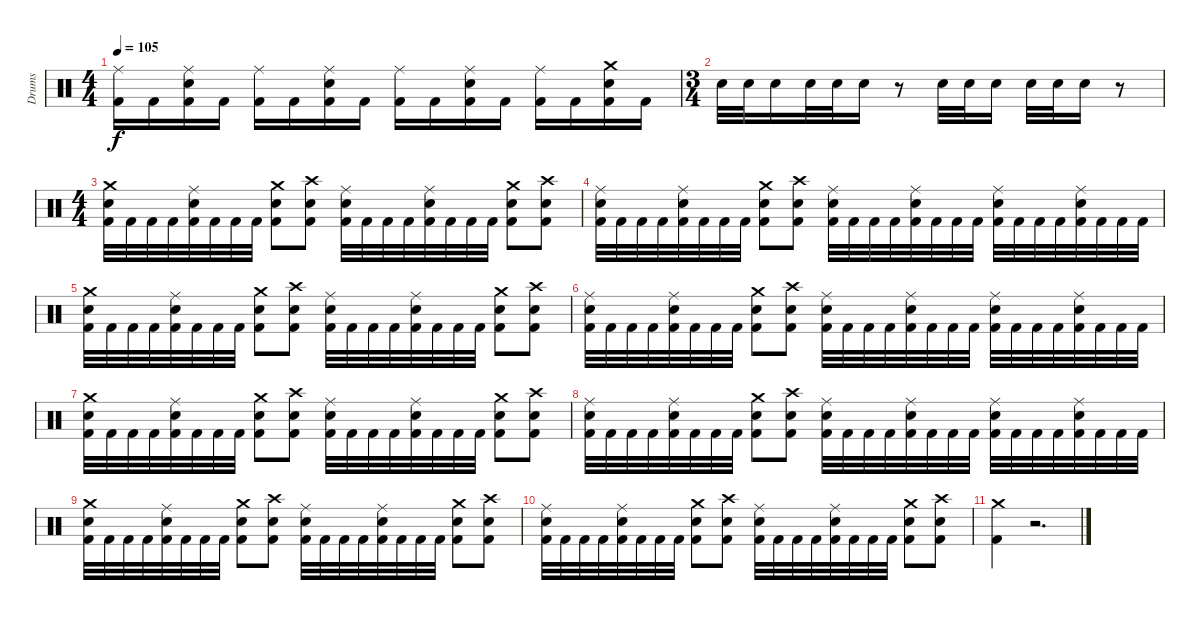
\track ("Drums" "Drums") {instrument percussion}
\staff {score}
\articulation defaults
\ts (4 4)
\tempo 105
\clef neutral
\ks c
("Ride (middle)" "Kick (hit) 2").16{dy f} "Kick (hit) 2".16 ("Ride (middle)" "Electric Snare (hit)" "Kick (hit) 2").16 "Kick (hit) 2".16 ("Ride (middle)" "Kick (hit) 2").16 "Kick (hit) 2".16 ("Ride (middle)" "Electric Snare (hit)" "Kick (hit) 2").16 "Kick (hit) 2".16 ("Ride (middle)" "Kick (hit) 2").16 "Kick (hit) 2".16 ("Ride (middle)" "Electric Snare (hit)" "Kick (hit) 2").16 "Kick (hit) 2".16 ("Ride (middle)" "Kick (hit) 2").16 "Kick (hit) 2".16 ("Crash medium (hit)" "Electric Snare (hit)" "Kick (hit) 2").16 "Kick (hit) 2".16 |
\ts (3 4)
"Electric Snare (hit)".32 "Electric Snare (hit)".32 "Electric Snare (hit)".16 "Electric Snare (hit)".32 "Electric Snare (hit)".32 "Electric Snare (hit)".16 r.8 "Electric Snare (hit)".32 "Electric Snare (hit)".32 "Electric Snare (hit)".16 "Electric Snare (hit)".32 "Electric Snare (hit)".32 "Electric Snare (hit)".16 r.8 |
\ts (4 4)
\section ("" "")
("Crash medium (hit)" "Electric Snare (hit)" "Kick (hit) 2").32 "Kick (hit) 2".32 "Kick (hit) 2".32 "Kick (hit) 2".32 ("Ride (middle)" "Electric Snare (hit)" "Kick (hit) 2").32 "Kick (hit) 2".32 "Kick (hit) 2".32 "Kick (hit) 2".32 ("Crash medium (hit)" "Electric Snare (hit)" "Kick (hit) 2").8 ("Crash high (hit)" "Electric Snare (hit)" "Kick (hit) 2").8 ("Ride (middle)" "Electric Snare (hit)" "Kick (hit) 2").32 "Kick (hit) 2".32 "Kick (hit) 2".32 "Kick (hit) 2".32 ("Ride (middle)" "Electric Snare (hit)" "Kick (hit) 2").32 "Kick (hit) 2".32 "Kick (hit) 2".32 "Kick (hit) 2".32 ("Crash medium (hit)" "Electric Snare (hit)" "Kick (hit) 2").8 ("Crash high (hit)" "Electric Snare (hit)" "Kick (hit) 2").8 |
("Ride (middle)" "Electric Snare (hit)" "Kick (hit) 2").32 "Kick (hit) 2".32 "Kick (hit) 2".32 "Kick (hit) 2".32 ("Ride (middle)" "Electric Snare (hit)" "Kick (hit) 2").32 "Kick (hit) 2".32 "Kick (hit) 2".32 "Kick (hit) 2".32 ("Crash medium (hit)" "Electric Snare (hit)" "Kick (hit) 2").8 ("Crash high (hit)" "Electric Snare (hit)" "Kick (hit) 2").8 ("Ride (middle)" "Electric Snare (hit)" "Kick (hit) 2").32 "Kick (hit) 2".32 "Kick (hit) 2".32 "Kick (hit) 2".32 ("Ride (middle)" "Electric Snare (hit)" "Kick (hit) 2").32 "Kick (hit) 2".32 "Kick (hit) 2".32 "Kick (hit) 2".32 ("Ride (middle)" "Electric Snare (hit)" "Kick (hit) 2").32 "Kick (hit) 2".32 "Kick (hit) 2".32 "Kick (hit) 2".32 ("Ride (middle)" "Electric Snare (hit)" "Kick (hit) 2").32 "Kick (hit) 2".32 "Kick (hit) 2".32 "Kick (hit) 2".32 |
("Crash medium (hit)" "Electric Snare (hit)" "Kick (hit) 2").32 "Kick (hit) 2".32 "Kick (hit) 2".32 "Kick (hit) 2".32 ("Ride (middle)" "Electric Snare (hit)" "Kick (hit) 2").32 "Kick (hit) 2".32 "Kick (hit) 2".32 "Kick (hit) 2".32 ("Crash medium (hit)" "Electric Snare (hit)" "Kick (hit) 2").8 ("Crash high (hit)" "Electric Snare (hit)" "Kick (hit) 2").8 ("Ride (middle)" "Electric Snare (hit)" "Kick (hit) 2").32 "Kick (hit) 2".32 "Kick (hit) 2".32 "Kick (hit) 2".32 ("Ride (middle)" "Electric Snare (hit)" "Kick (hit) 2").32 "Kick (hit) 2".32 "Kick (hit) 2".32 "Kick (hit) 2".32 ("Crash medium (hit)" "Electric Snare (hit)" "Kick (hit) 2").8 ("Crash high (hit)" "Electric Snare (hit)" "Kick (hit) 2").8 |
("Ride (middle)" "Electric Snare (hit)" "Kick (hit) 2").32 "Kick (hit) 2".32 "Kick (hit) 2".32 "Kick (hit) 2".32 ("Ride (middle)" "Electric Snare (hit)" "Kick (hit) 2").32 "Kick (hit) 2".32 "Kick (hit) 2".32 "Kick (hit) 2".32 ("Crash medium (hit)" "Electric Snare (hit)" "Kick (hit) 2").8 ("Crash high (hit)" "Electric Snare (hit)" "Kick (hit) 2").8 ("Ride (middle)" "Electric Snare (hit)" "Kick (hit) 2").32 "Kick (hit) 2".32 "Kick (hit) 2".32 "Kick (hit) 2".32 ("Ride (middle)" "Electric Snare (hit)" "Kick (hit) 2").32 "Kick (hit) 2".32 "Kick (hit) 2".32 "Kick (hit) 2".32 ("Ride (middle)" "Electric Snare (hit)" "Kick (hit) 2").32 "Kick (hit) 2".32 "Kick (hit) 2".32 "Kick (hit) 2".32 ("Ride (middle)" "Electric Snare (hit)" "Kick (hit) 2").32 "Kick (hit) 2".32 "Kick (hit) 2".32 "Kick (hit) 2".32 |
("Crash medium (hit)" "Electric Snare (hit)" "Kick (hit) 2").32 "Kick (hit) 2".32 "Kick (hit) 2".32 "Kick (hit) 2".32 ("Ride (middle)" "Electric Snare (hit)" "Kick (hit) 2").32 "Kick (hit) 2".32 "Kick (hit) 2".32 "Kick (hit) 2".32 ("Crash medium (hit)" "Electric Snare (hit)" "Kick (hit) 2").8 ("Crash high (hit)" "Electric Snare (hit)" "Kick (hit) 2").8 ("Ride (middle)" "Electric Snare (hit)" "Kick (hit) 2").32 "Kick (hit) 2".32 "Kick (hit) 2".32 "Kick (hit) 2".32 ("Ride (middle)" "Electric Snare (hit)" "Kick (hit) 2").32 "Kick (hit) 2".32 "Kick (hit) 2".32 "Kick (hit) 2".32 ("Crash medium (hit)" "Electric Snare (hit)" "Kick (hit) 2").8 ("Crash high (hit)" "Electric Snare (hit)" "Kick (hit) 2").8 |
("Ride (middle)" "Electric Snare (hit)" "Kick (hit) 2").32 "Kick (hit) 2".32 "Kick (hit) 2".32 "Kick (hit) 2".32 ("Ride (middle)" "Electric Snare (hit)" "Kick (hit) 2").32 "Kick (hit) 2".32 "Kick (hit) 2".32 "Kick (hit) 2".32 ("Crash medium (hit)" "Electric Snare (hit)" "Kick (hit) 2").8 ("Crash high (hit)" "Electric Snare (hit)" "Kick (hit) 2").8 ("Ride (middle)" "Electric Snare (hit)" "Kick (hit) 2").32 "Kick (hit) 2".32 "Kick (hit) 2".32 "Kick (hit) 2".32 ("Ride (middle)" "Electric Snare (hit)" "Kick (hit) 2").32 "Kick (hit) 2".32 "Kick (hit) 2".32 "Kick (hit) 2".32 ("Ride (middle)" "Electric Snare (hit)" "Kick (hit) 2").32 "Kick (hit) 2".32 "Kick (hit) 2".32 "Kick (hit) 2".32 ("Ride (middle)" "Electric Snare (hit)" "Kick (hit) 2").32 "Kick (hit) 2".32 "Kick (hit) 2".32 "Kick (hit) 2".32 |
("Crash medium (hit)" "Electric Snare (hit)" "Kick (hit) 2").32 "Kick (hit) 2".32 "Kick (hit) 2".32 "Kick (hit) 2".32 ("Ride (middle)" "Electric Snare (hit)" "Kick (hit) 2").32 "Kick (hit) 2".32 "Kick (hit) 2".32 "Kick (hit) 2".32 ("Crash medium (hit)" "Electric Snare (hit)" "Kick (hit) 2").8 ("Crash high (hit)" "Electric Snare (hit)" "Kick (hit) 2").8 ("Ride (middle)" "Electric Snare (hit)" "Kick (hit) 2").32 "Kick (hit) 2".32 "Kick (hit) 2".32 "Kick (hit) 2".32 ("Ride (middle)" "Electric Snare (hit)" "Kick (hit) 2").32 "Kick (hit) 2".32 "Kick (hit) 2".32 "Kick (hit) 2".32 ("Crash medium (hit)" "Electric Snare (hit)" "Kick (hit) 2").8 ("Crash high (hit)" "Electric Snare (hit)" "Kick (hit) 2").8 |
("Ride (middle)" "Electric Snare (hit)" "Kick (hit) 2").32 "Kick (hit) 2".32 "Kick (hit) 2".32 "Kick (hit) 2".32 ("Ride (middle)" "Electric Snare (hit)" "Kick (hit) 2").32 "Kick (hit) 2".32 "Kick (hit) 2".32 "Kick (hit) 2".32 ("Crash medium (hit)" "Electric Snare (hit)" "Kick (hit) 2").8 ("Crash high (hit)" "Electric Snare (hit)" "Kick (hit) 2").8 ("Ride (middle)" "Electric Snare (hit)" "Kick (hit) 2").32 "Kick (hit) 2".32 "Kick (hit) 2".32 "Kick (hit) 2".32 ("Ride (middle)" "Electric Snare (hit)" "Kick (hit) 2").32 "Kick (hit) 2".32 "Kick (hit) 2".32 "Kick (hit) 2".32 ("Crash medium (hit)" "Electric Snare (hit)" "Kick (hit) 2").8 ("Crash high (hit)" "Electric Snare (hit)" "Kick (hit) 2").8 |
("Crash medium (hit)" "Kick (hit) 2").4 r.2{d}
